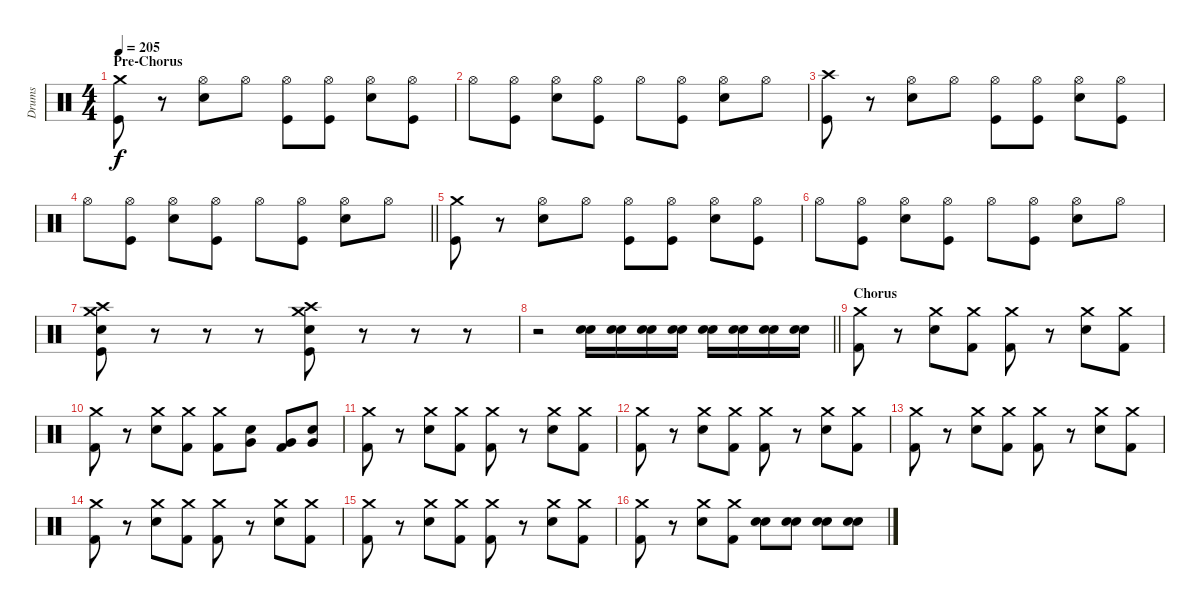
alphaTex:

\track ("Drums" "Drums") {instrument percussion}
\staff {score}
\articulation defaults
\ts (4 4)
\section ("" "Pre-Chorus")
\tempo 205
\clef neutral
\ks c
("Crash medium (hit)" "Kick (hit)").8{dy f} r.8 ("Hi-Hat (open)" "Electric Snare (hit)").8 "Hi-Hat (open)".8 ("Hi-Hat (open)" "Kick (hit)").8 ("Hi-Hat (open)" "Kick (hit)").8 ("Hi-Hat (open)" "Electric Snare (hit)").8 ("Hi-Hat (open)" "Kick (hit)").8 |
"Hi-Hat (open)".8 ("Hi-Hat (open)" "Kick (hit)").8 ("Hi-Hat (open)" "Electric Snare (hit)").8 ("Hi-Hat (open)" "Kick (hit)").8 "Hi-Hat (open)".8 ("Hi-Hat (open)" "Kick (hit)").8 ("Hi-Hat (open)" "Electric Snare (hit)").8 "Hi-Hat (open)".8 |
("Crash high (hit)" "Kick (hit)").8 r.8 ("Hi-Hat (open)" "Electric Snare (hit)").8 "Hi-Hat (open)".8 ("Hi-Hat (open)" "Kick (hit)").8 ("Hi-Hat (open)" "Kick (hit)").8 ("Hi-Hat (open)" "Electric Snare (hit)").8 ("Hi-Hat (open)" "Kick (hit)").8 |
\barLineRight lightlight "Hi-Hat (open)".8
("Hi-Hat (open)" "Kick (hit)").8 ("Hi-Hat (open)" "Electric Snare (hit)").8 ("Hi-Hat (open)" "Kick (hit)").8 "Hi-Hat (open)".8 ("Hi-Hat (open)" "Kick (hit)").8 ("Hi-Hat (open)" "Electric Snare (hit)").8 "Hi-Hat (open)".8 |
("Crash medium (hit)" "Kick (hit)").8 r.8 ("Hi-Hat (open)" "Electric Snare (hit)").8 "Hi-Hat (open)".8 ("Hi-Hat (open)" "Kick (hit)").8 ("Hi-Hat (open)" "Kick (hit)").8 ("Hi-Hat (open)" "Electric Snare (hit)").8 ("Hi-Hat (open)" "Kick (hit)").8 |
"Hi-Hat (open)".8 ("Hi-Hat (open)" "Kick (hit)").8 ("Hi-Hat (open)" "Electric Snare (hit)").8 ("Hi-Hat (open)" "Kick (hit)").8 "Hi-Hat (open)".8 ("Hi-Hat (open)" "Kick (hit)").8 ("Hi-Hat (open)" "Electric Snare (hit)").8 "Hi-Hat (open)".8 |
("Crash medium (hit)" "Crash high (hit)" "Electric Snare (hit)" "Kick (hit)").8 r.8 r.8 r.8 ("Crash medium (hit)" "Crash high (hit)" "Electric Snare (hit)" "Kick (hit)").8 r.8 r.8 r.8 |
\barLineRight lightlight
r.2 ("Electric Snare (hit)" "Snare (hit) 2").16 ("Electric Snare (hit)" "Snare (hit) 2").16 ("Electric Snare (hit)" "Snare (hit) 2").16 ("Electric Snare (hit)" "Snare (hit) 2").16 ("Electric Snare (hit)" "Snare (hit) 2").16 ("Electric Snare (hit)" "Snare (hit) 2").16 ("Electric Snare (hit)" "Snare (hit) 2").16 ("Electric Snare (hit)" "Snare (hit) 2").16 |
\section ("" "Chorus")
("Kick (hit) 2" "Crash medium (hit)").8 r.8 ("Snare (hit) 2" "Crash medium (hit)").8 ("Kick (hit) 2" "Crash medium (hit)").8 ("Kick (hit) 2" "Crash medium (hit)").8 r.8 ("Snare (hit) 2" "Crash medium (hit)").8 ("Kick (hit) 2" "Crash medium (hit)").8 |
("Kick (hit) 2" "Crash medium (hit)").8 r.8 ("Snare (hit) 2" "Crash medium (hit)").8 ("Kick (hit) 2" "Crash medium (hit)").8 ("Kick (hit) 2" "Crash medium (hit)").8 ("Snare (hit) 2" "Very Low Tom (hit)").8 ("Kick (hit) 2" "Very Low Tom (hit)").8 ("Snare (hit) 2" "Very Low Tom (hit)").8 |
("Kick (hit) 2" "Crash medium (hit)").8 r.8 ("Snare (hit) 2" "Crash medium (hit)").8 ("Kick (hit) 2" "Crash medium (hit)").8 ("Kick (hit) 2" "Crash medium (hit)").8 r.8 ("Snare (hit) 2" "Crash medium (hit)").8 ("Kick (hit) 2" "Crash medium (hit)").8 |
("Kick (hit) 2" "Crash medium (hit)").8 r.8 ("Snare (hit) 2" "Crash medium (hit)").8 ("Kick (hit) 2" "Crash medium (hit)").8 ("Kick (hit) 2" "Crash medium (hit)").8 r.8 ("Snare (hit) 2" "Crash medium (hit)").8 ("Kick (hit) 2" "Crash medium (hit)").8 |
("Kick (hit) 2" "Crash medium (hit)").8 r.8 ("Snare (hit) 2" "Crash medium (hit)").8 ("Kick (hit) 2" "Crash medium (hit)").8 ("Kick (hit) 2" "Crash medium (hit)").8 r.8 ("Snare (hit) 2" "Crash medium (hit)").8 ("Kick (hit) 2" "Crash medium (hit)").8 |
("Kick (hit) 2" "Crash medium (hit)").8 r.8 ("Snare (hit) 2" "Crash medium (hit)").8 ("Kick (hit) 2" "Crash medium (hit)").8 ("Kick (hit) 2" "Crash medium (hit)").8 r.8 ("Snare (hit) 2" "Crash medium (hit)").8 ("Kick (hit) 2" "Crash medium (hit)").8 |
("Kick (hit) 2" "Crash medium (hit)").8 r.8 ("Snare (hit) 2" "Crash medium (hit)").8 ("Kick (hit) 2" "Crash medium (hit)").8 ("Kick (hit) 2" "Crash medium (hit)").8 r.8 ("Snare (hit) 2" "Crash medium (hit)").8 ("Kick (hit) 2" "Crash medium (hit)").8 |
("Kick (hit) 2" "Crash medium (hit)").8 r.8 ("Snare (hit) 2" "Crash medium (hit)").8 ("Kick (hit) 2" "Crash medium (hit)").8 ("Electric Snare (hit)" "Snare (hit) 2").8 ("Electric Snare (hit)" "Snare (hit) 2").8 ("Electric Snare (hit)" "Snare (hit) 2").8 ("Electric Snare (hit)" "Snare (hit) 2").8
